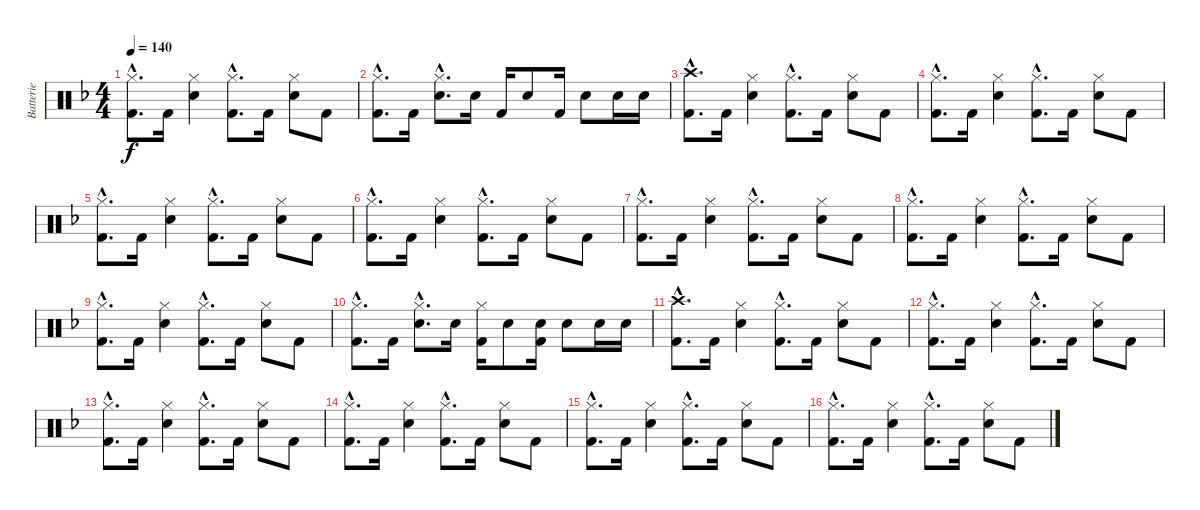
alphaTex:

\track ("Batterie" "Batterie") {instrument percussion}
\staff {score}
\articulation defaults
\ts (4 4)
\tempo 140
\clef neutral
\ks f
("Hi-Hat (closed)"{hac} "Kick (hit) 2"{hac}).8{d dy f} "Kick (hit) 2".16 ("Hi-Hat (closed)" "Snare (hit) 2").4 ("Hi-Hat (closed)"{hac} "Kick (hit) 2"{hac}).8{d} "Kick (hit) 2".16 ("Hi-Hat (closed)" "Snare (hit) 2").8 "Kick (hit) 2".8 |
("Hi-Hat (closed)"{hac} "Kick (hit) 2"{hac}).8{d} "Kick (hit) 2".16 ("Hi-Hat (closed)"{hac} "Snare (hit) 2"{hac}).8{d} "Snare (hit) 2".16 "Kick (hit) 2".16 "Snare (hit) 2".8 "Kick (hit) 2".16 "Snare (hit) 2".8 "Snare (hit) 2".16 "Snare (hit) 2".16 |
("Crash high (hit)"{hac} "Kick (hit) 2"{hac}).8{d} "Kick (hit) 2".16 ("Hi-Hat (closed)" "Snare (hit) 2").4 ("Hi-Hat (closed)"{hac} "Kick (hit) 2"{hac}).8{d} "Kick (hit) 2".16 ("Hi-Hat (closed)" "Snare (hit) 2").8 "Kick (hit) 2".8 |
("Hi-Hat (closed)"{hac} "Kick (hit) 2"{hac}).8{d} "Kick (hit) 2".16 ("Hi-Hat (closed)" "Snare (hit) 2").4 ("Hi-Hat (closed)"{hac} "Kick (hit) 2"{hac}).8{d} "Kick (hit) 2".16 ("Hi-Hat (closed)" "Snare (hit) 2").8 "Kick (hit) 2".8 |
("Hi-Hat (closed)"{hac} "Kick (hit) 2"{hac}).8{d} "Kick (hit) 2".16 ("Hi-Hat (closed)" "Snare (hit) 2").4 ("Hi-Hat (closed)"{hac} "Kick (hit) 2"{hac}).8{d} "Kick (hit) 2".16 ("Hi-Hat (closed)" "Snare (hit) 2").8 "Kick (hit) 2".8 |
("Hi-Hat (closed)"{hac} "Kick (hit) 2"{hac}).8{d} "Kick (hit) 2".16 ("Hi-Hat (closed)" "Snare (hit) 2").4 ("Hi-Hat (closed)"{hac} "Kick (hit) 2"{hac}).8{d} "Kick (hit) 2".16 ("Hi-Hat (closed)" "Snare (hit) 2").8 "Kick (hit) 2".8 |
("Hi-Hat (closed)"{hac} "Kick (hit) 2"{hac}).8{d} "Kick (hit) 2".16 ("Hi-Hat (closed)" "Snare (hit) 2").4 ("Hi-Hat (closed)"{hac} "Kick (hit) 2"{hac}).8{d} "Kick (hit) 2".16 ("Hi-Hat (closed)" "Snare (hit) 2").8 "Kick (hit) 2".8 |
("Hi-Hat (closed)"{hac} "Kick (hit) 2"{hac}).8{d} "Kick (hit) 2".16 ("Hi-Hat (closed)" "Snare (hit) 2").4 ("Hi-Hat (closed)"{hac} "Kick (hit) 2"{hac}).8{d} "Kick (hit) 2".16 ("Hi-Hat (closed)" "Snare (hit) 2").8 "Kick (hit) 2".8 |
("Hi-Hat (closed)"{hac} "Kick (hit) 2"{hac}).8{d} "Kick (hit) 2".16 ("Hi-Hat (closed)" "Snare (hit) 2").4 ("Hi-Hat (closed)"{hac} "Kick (hit) 2"{hac}).8{d} "Kick (hit) 2".16 ("Hi-Hat (closed)" "Snare (hit) 2").8 "Kick (hit) 2".8 |
("Hi-Hat (closed)"{hac} "Kick (hit) 2"{hac}).8{d} "Kick (hit) 2".16 ("Hi-Hat (closed)"{hac} "Snare (hit) 2"{hac}).8{d} "Snare (hit) 2".16 ("Hi-Hat (closed)" "Kick (hit) 2").16 "Snare (hit) 2".8 ("Snare (hit) 2" "Kick (hit) 2").16 "Snare (hit) 2".8 "Snare (hit) 2".16 "Snare (hit) 2".16 |
("Crash high (hit)"{hac} "Kick (hit) 2"{hac}).8{d} "Kick (hit) 2".16 ("Hi-Hat (closed)" "Snare (hit) 2").4 ("Hi-Hat (closed)"{hac} "Kick (hit) 2"{hac}).8{d} "Kick (hit) 2".16 ("Hi-Hat (closed)" "Snare (hit) 2").8 "Kick (hit) 2".8 |
("Hi-Hat (closed)"{hac} "Kick (hit) 2"{hac}).8{d} "Kick (hit) 2".16 ("Hi-Hat (closed)" "Snare (hit) 2").4 ("Hi-Hat (closed)"{hac} "Kick (hit) 2"{hac}).8{d} "Kick (hit) 2".16 ("Hi-Hat (closed)" "Snare (hit) 2").8 "Kick (hit) 2".8 |
("Hi-Hat (closed)"{hac} "Kick (hit) 2"{hac}).8{d} "Kick (hit) 2".16 ("Hi-Hat (closed)" "Snare (hit) 2").4 ("Hi-Hat (closed)"{hac} "Kick (hit) 2"{hac}).8{d} "Kick (hit) 2".16 ("Hi-Hat (closed)" "Snare (hit) 2").8 "Kick (hit) 2".8 |
("Hi-Hat (closed)"{hac} "Kick (hit) 2"{hac}).8{d} "Kick (hit) 2".16 ("Hi-Hat (closed)" "Snare (hit) 2").4 ("Hi-Hat (closed)"{hac} "Kick (hit) 2"{hac}).8{d} "Kick (hit) 2".16 ("Hi-Hat (closed)" "Snare (hit) 2").8 "Kick (hit) 2".8 |
("Hi-Hat (closed)"{hac} "Kick (hit) 2"{hac}).8{d} "Kick (hit) 2".16 ("Hi-Hat (closed)" "Snare (hit) 2").4 ("Hi-Hat (closed)"{hac} "Kick (hit) 2"{hac}).8{d} "Kick (hit) 2".16 ("Hi-Hat (closed)" "Snare (hit) 2").8 "Kick (hit) 2".8 |
("Hi-Hat (closed)"{hac} "Kick (hit) 2"{hac}).8{d} "Kick (hit) 2".16 ("Hi-Hat (closed)" "Snare (hit) 2").4 ("Hi-Hat (closed)"{hac} "Kick (hit) 2"{hac}).8{d} "Kick (hit) 2".16 ("Hi-Hat (closed)" "Snare (hit) 2").8 "Kick (hit) 2".8
